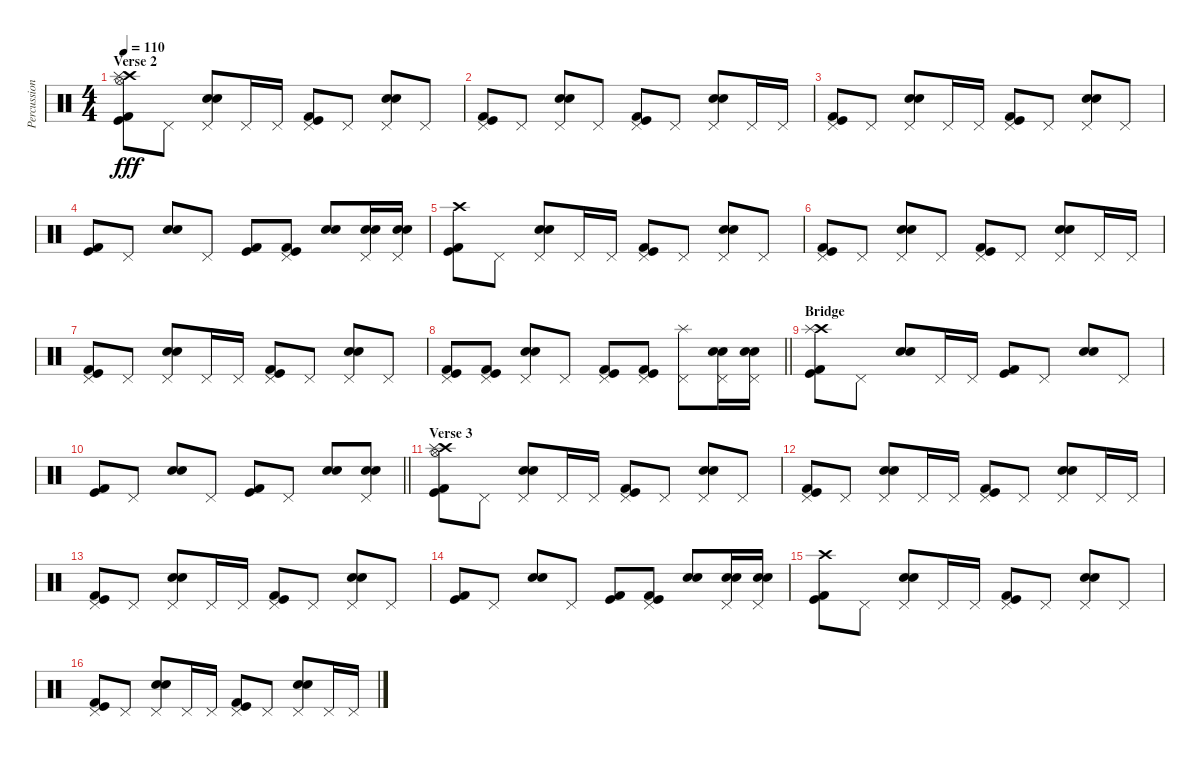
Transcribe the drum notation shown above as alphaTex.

\track ("Percussion" "Percussion") {instrument percussion}
\staff {score}
\articulation defaults
\ts (4 4)
\section ("" "Verse 2")
\tempo 110
\clef neutral
\ks c
("Crash high (hit)" "Splash (hit)" "Hi-Hat (open)" "Kick (hit)" "Kick (hit) 2").8{dy fff} "Pedal Hi-Hat (hit)".8 ("Electric Snare (hit)" "Snare (hit) 2" "Pedal Hi-Hat (hit)").8 "Pedal Hi-Hat (hit)".16 "Pedal Hi-Hat (hit)".16 ("Pedal Hi-Hat (hit)" "Kick (hit)" "Kick (hit) 2").8 "Pedal Hi-Hat (hit)".8 ("Electric Snare (hit)" "Snare (hit) 2" "Pedal Hi-Hat (hit)").8 "Pedal Hi-Hat (hit)".8 |
("Pedal Hi-Hat (hit)" "Kick (hit)" "Kick (hit) 2").8 "Pedal Hi-Hat (hit)".8 ("Electric Snare (hit)" "Snare (hit) 2" "Pedal Hi-Hat (hit)").8 "Pedal Hi-Hat (hit)".8 ("Pedal Hi-Hat (hit)" "Kick (hit)" "Kick (hit) 2").8 "Pedal Hi-Hat (hit)".8 ("Electric Snare (hit)" "Snare (hit) 2" "Pedal Hi-Hat (hit)").8 "Pedal Hi-Hat (hit)".16 "Pedal Hi-Hat (hit)".16 |
("Pedal Hi-Hat (hit)" "Kick (hit)" "Kick (hit) 2").8 "Pedal Hi-Hat (hit)".8 ("Electric Snare (hit)" "Snare (hit) 2" "Pedal Hi-Hat (hit)").8 "Pedal Hi-Hat (hit)".16 "Pedal Hi-Hat (hit)".16 ("Pedal Hi-Hat (hit)" "Kick (hit)" "Kick (hit) 2").8 "Pedal Hi-Hat (hit)".8 ("Electric Snare (hit)" "Snare (hit) 2" "Pedal Hi-Hat (hit)").8 "Pedal Hi-Hat (hit)".8 |
("Kick (hit)" "Kick (hit) 2").8 "Pedal Hi-Hat (hit)".8 ("Electric Snare (hit)" "Snare (hit) 2").8 "Pedal Hi-Hat (hit)".8 ("Kick (hit)" "Kick (hit) 2").8 ("Pedal Hi-Hat (hit)" "Kick (hit)" "Kick (hit) 2").8 ("Electric Snare (hit)" "Snare (hit) 2").8 ("Electric Snare (hit)" "Snare (hit) 2" "Pedal Hi-Hat (hit)").16 ("Electric Snare (hit)" "Snare (hit) 2" "Pedal Hi-Hat (hit)").16 |
("Crash high (hit)" "Kick (hit)" "Kick (hit) 2").8 "Pedal Hi-Hat (hit)".8 ("Electric Snare (hit)" "Snare (hit) 2" "Pedal Hi-Hat (hit)").8 "Pedal Hi-Hat (hit)".16 "Pedal Hi-Hat (hit)".16 ("Pedal Hi-Hat (hit)" "Kick (hit)" "Kick (hit) 2").8 "Pedal Hi-Hat (hit)".8 ("Electric Snare (hit)" "Snare (hit) 2" "Pedal Hi-Hat (hit)").8 "Pedal Hi-Hat (hit)".8 |
("Pedal Hi-Hat (hit)" "Kick (hit)" "Kick (hit) 2").8 "Pedal Hi-Hat (hit)".8 ("Electric Snare (hit)" "Snare (hit) 2" "Pedal Hi-Hat (hit)").8 "Pedal Hi-Hat (hit)".8 ("Pedal Hi-Hat (hit)" "Kick (hit)" "Kick (hit) 2").8 "Pedal Hi-Hat (hit)".8 ("Electric Snare (hit)" "Snare (hit) 2" "Pedal Hi-Hat (hit)").8 "Pedal Hi-Hat (hit)".16 "Pedal Hi-Hat (hit)".16 |
("Pedal Hi-Hat (hit)" "Kick (hit)" "Kick (hit) 2").8 "Pedal Hi-Hat (hit)".8 ("Electric Snare (hit)" "Snare (hit) 2" "Pedal Hi-Hat (hit)").8 "Pedal Hi-Hat (hit)".16 "Pedal Hi-Hat (hit)".16 ("Pedal Hi-Hat (hit)" "Kick (hit)" "Kick (hit) 2").8 "Pedal Hi-Hat (hit)".8 ("Electric Snare (hit)" "Snare (hit) 2" "Pedal Hi-Hat (hit)").8 "Pedal Hi-Hat (hit)".8 |
\barLineRight lightlight
("Pedal Hi-Hat (hit)" "Kick (hit)" "Kick (hit) 2").8 ("Pedal Hi-Hat (hit)" "Kick (hit)" "Kick (hit) 2").8 ("Electric Snare (hit)" "Snare (hit) 2" "Pedal Hi-Hat (hit)").8 "Pedal Hi-Hat (hit)".8 ("Pedal Hi-Hat (hit)" "Kick (hit)" "Kick (hit) 2").8 ("Pedal Hi-Hat (hit)" "Kick (hit)" "Kick (hit) 2").8 ("Splash (hit)" "Pedal Hi-Hat (hit)").8 ("Electric Snare (hit)" "Snare (hit) 2" "Pedal Hi-Hat (hit)").16 ("Electric Snare (hit)" "Snare (hit) 2" "Pedal Hi-Hat (hit)").16 |
\section ("" "Bridge")
("Crash high (hit)" "Splash (hit)" "Kick (hit)" "Kick (hit) 2").8 "Pedal Hi-Hat (hit)".8 ("Electric Snare (hit)" "Snare (hit) 2").8 "Pedal Hi-Hat (hit)".16 "Pedal Hi-Hat (hit)".16 ("Kick (hit)" "Kick (hit) 2").8 "Pedal Hi-Hat (hit)".8 ("Electric Snare (hit)" "Snare (hit) 2").8 "Pedal Hi-Hat (hit)".8 |
\barLineRight lightlight
("Kick (hit)" "Kick (hit) 2").8 "Pedal Hi-Hat (hit)".8 ("Electric Snare (hit)" "Snare (hit) 2").8 "Pedal Hi-Hat (hit)".8 ("Kick (hit)" "Kick (hit) 2").8 "Pedal Hi-Hat (hit)".8 ("Electric Snare (hit)" "Snare (hit) 2").8 ("Electric Snare (hit)" "Snare (hit) 2" "Pedal Hi-Hat (hit)").8 |
\section ("" "Verse 3")
("Crash high (hit)" "Splash (hit)" "Hi-Hat (open)" "Kick (hit)" "Kick (hit) 2").8 "Pedal Hi-Hat (hit)".8 ("Electric Snare (hit)" "Snare (hit) 2" "Pedal Hi-Hat (hit)").8 "Pedal Hi-Hat (hit)".16 "Pedal Hi-Hat (hit)".16 ("Pedal Hi-Hat (hit)" "Kick (hit)" "Kick (hit) 2").8 "Pedal Hi-Hat (hit)".8 ("Electric Snare (hit)" "Snare (hit) 2" "Pedal Hi-Hat (hit)").8 "Pedal Hi-Hat (hit)".8 |
("Pedal Hi-Hat (hit)" "Kick (hit)" "Kick (hit) 2").8 "Pedal Hi-Hat (hit)".8 ("Electric Snare (hit)" "Snare (hit) 2" "Pedal Hi-Hat (hit)").8 "Pedal Hi-Hat (hit)".16 "Pedal Hi-Hat (hit)".16 ("Pedal Hi-Hat (hit)" "Kick (hit)" "Kick (hit) 2").8 "Pedal Hi-Hat (hit)".8 ("Electric Snare (hit)" "Snare (hit) 2" "Pedal Hi-Hat (hit)").8 "Pedal Hi-Hat (hit)".16 "Pedal Hi-Hat (hit)".16 |
("Pedal Hi-Hat (hit)" "Kick (hit)" "Kick (hit) 2").8 "Pedal Hi-Hat (hit)".8 ("Electric Snare (hit)" "Snare (hit) 2" "Pedal Hi-Hat (hit)").8 "Pedal Hi-Hat (hit)".16 "Pedal Hi-Hat (hit)".16 ("Pedal Hi-Hat (hit)" "Kick (hit)" "Kick (hit) 2").8 "Pedal Hi-Hat (hit)".8 ("Electric Snare (hit)" "Snare (hit) 2" "Pedal Hi-Hat (hit)").8 "Pedal Hi-Hat (hit)".8 |
("Kick (hit)" "Kick (hit) 2").8 "Pedal Hi-Hat (hit)".8 ("Electric Snare (hit)" "Snare (hit) 2").8 "Pedal Hi-Hat (hit)".8 ("Kick (hit)" "Kick (hit) 2").8 ("Pedal Hi-Hat (hit)" "Kick (hit)" "Kick (hit) 2").8 ("Electric Snare (hit)" "Snare (hit) 2").8 ("Electric Snare (hit)" "Snare (hit) 2" "Pedal Hi-Hat (hit)").16 ("Electric Snare (hit)" "Snare (hit) 2" "Pedal Hi-Hat (hit)").16 |
("Crash high (hit)" "Kick (hit)" "Kick (hit) 2").8 "Pedal Hi-Hat (hit)".8 ("Electric Snare (hit)" "Snare (hit) 2" "Pedal Hi-Hat (hit)").8 "Pedal Hi-Hat (hit)".16 "Pedal Hi-Hat (hit)".16 ("Pedal Hi-Hat (hit)" "Kick (hit)" "Kick (hit) 2").8 "Pedal Hi-Hat (hit)".8 ("Electric Snare (hit)" "Snare (hit) 2" "Pedal Hi-Hat (hit)").8 "Pedal Hi-Hat (hit)".8 |
("Pedal Hi-Hat (hit)" "Kick (hit)" "Kick (hit) 2").8 "Pedal Hi-Hat (hit)".8 ("Electric Snare (hit)" "Snare (hit) 2" "Pedal Hi-Hat (hit)").8 "Pedal Hi-Hat (hit)".16 "Pedal Hi-Hat (hit)".16 ("Pedal Hi-Hat (hit)" "Kick (hit)" "Kick (hit) 2").8 "Pedal Hi-Hat (hit)".8 ("Electric Snare (hit)" "Snare (hit) 2" "Pedal Hi-Hat (hit)").8 "Pedal Hi-Hat (hit)".16 "Pedal Hi-Hat (hit)".16
